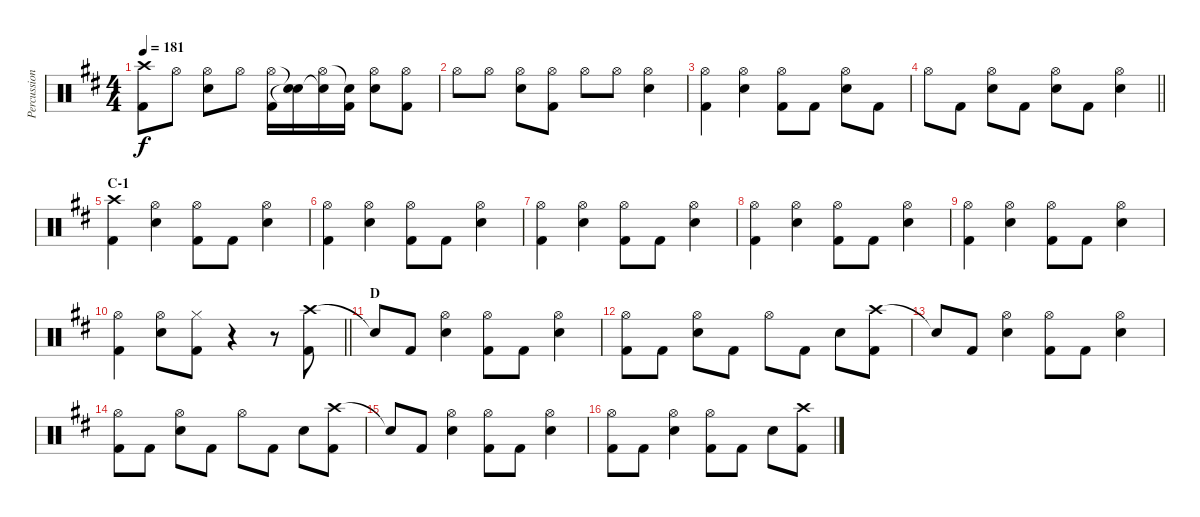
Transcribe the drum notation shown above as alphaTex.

\track ("Percussion" "Percussion") {instrument percussion}
\staff {score}
\articulation defaults
\ts (4 4)
\tempo 181
\clef neutral
\ks d
("Crash high (hit)" "Kick (hit) 2").8{dy f} "Hi-Hat (open)".8 ("Hi-Hat (open)" "Snare (hit) 2").8 "Hi-Hat (open)".8 ("Hi-Hat (open)" "Kick (hit) 2").16 ("Snare (hit)"{t} "Snare (hit)"{t}).16 ("Hi-Hat (open)" "Snare (hit)"{t}).16 ("Snare (hit)"{t} "Kick (hit) 2").16 ("Hi-Hat (open)" "Snare (hit) 2").8 ("Hi-Hat (open)" "Kick (hit) 2").8 |
"Hi-Hat (open)".8 "Hi-Hat (open)".8 ("Hi-Hat (open)" "Snare (hit) 2").8 ("Hi-Hat (open)" "Kick (hit) 2").8 "Hi-Hat (open)".8 "Hi-Hat (open)".8 ("Hi-Hat (open)" "Snare (hit) 2").4 |
("Hi-Hat (open)" "Kick (hit) 2").4 ("Hi-Hat (open)" "Snare (hit) 2").4 ("Hi-Hat (open)" "Kick (hit) 2").8 "Kick (hit) 2".8 ("Hi-Hat (open)" "Snare (hit) 2").8 "Kick (hit) 2".8 |
\barLineRight lightlight "Hi-Hat (open)".8 "Kick (hit) 2".8
("Hi-Hat (open)" "Snare (hit) 2").8 "Kick (hit) 2".8 ("Hi-Hat (open)" "Snare (hit) 2").8 "Kick (hit) 2".8 ("Hi-Hat (open)" "Snare (hit) 2").4 |
\section ("" "C-1")
("Crash high (hit)" "Kick (hit) 2").4 ("Hi-Hat (open)" "Snare (hit) 2").4 ("Hi-Hat (open)" "Kick (hit) 2").8 "Kick (hit) 2".8 ("Hi-Hat (open)" "Snare (hit) 2").4 |
("Hi-Hat (open)" "Kick (hit) 2").4 ("Hi-Hat (open)" "Snare (hit) 2").4 ("Hi-Hat (open)" "Kick (hit) 2").8 "Kick (hit) 2".8 ("Hi-Hat (open)" "Snare (hit) 2").4 |
("Hi-Hat (open)" "Kick (hit) 2").4 ("Hi-Hat (open)" "Snare (hit) 2").4 ("Hi-Hat (open)" "Kick (hit) 2").8 "Kick (hit) 2".8 ("Hi-Hat (open)" "Snare (hit) 2").4 |
("Hi-Hat (open)" "Kick (hit) 2").4 ("Hi-Hat (open)" "Snare (hit) 2").4 ("Hi-Hat (open)" "Kick (hit) 2").8 "Kick (hit) 2".8 ("Hi-Hat (open)" "Snare (hit) 2").4 |
("Hi-Hat (open)" "Kick (hit) 2").4 ("Hi-Hat (open)" "Snare (hit) 2").4 ("Hi-Hat (open)" "Kick (hit) 2").8 "Kick (hit) 2".8 ("Hi-Hat (open)" "Snare (hit) 2").4 |
\barLineRight lightlight
("Hi-Hat (open)" "Kick (hit) 2").4 ("Hi-Hat (open)" "Snare (hit) 2").8 ("Hi-Hat (closed)" "Kick (hit) 2").8 r.4 r.8 ("Crash high (hit)" "Kick (hit) 2").8 |
\section ("" "D")
"Snare (hit)"{t}.8 "Kick (hit) 2".8 ("Hi-Hat (open)" "Snare (hit) 2").4 ("Hi-Hat (open)" "Kick (hit) 2").8 "Kick (hit) 2".8 ("Hi-Hat (open)" "Snare (hit) 2").4 |
("Hi-Hat (open)" "Kick (hit) 2").8 "Kick (hit) 2".8 ("Hi-Hat (open)" "Snare (hit) 2").8 "Kick (hit) 2".8 "Hi-Hat (open)".8 "Kick (hit) 2".8 "Snare (hit) 2".8 ("Crash high (hit)" "Kick (hit) 2").8 |
"Snare (hit)"{t}.8 "Kick (hit) 2".8 ("Hi-Hat (open)" "Snare (hit) 2").4 ("Hi-Hat (open)" "Kick (hit) 2").8 "Kick (hit) 2".8 ("Hi-Hat (open)" "Snare (hit) 2").4 |
("Hi-Hat (open)" "Kick (hit) 2").8 "Kick (hit) 2".8 ("Hi-Hat (open)" "Snare (hit) 2").8 "Kick (hit) 2".8 "Hi-Hat (open)".8 "Kick (hit) 2".8 "Snare (hit) 2".8 ("Crash high (hit)" "Kick (hit) 2").8 |
"Snare (hit)"{t}.8 "Kick (hit) 2".8 ("Hi-Hat (open)" "Snare (hit) 2").4 ("Hi-Hat (open)" "Kick (hit) 2").8 "Kick (hit) 2".8 ("Hi-Hat (open)" "Snare (hit) 2").4 |
("Hi-Hat (open)" "Kick (hit) 2").8 "Kick (hit) 2".8 ("Hi-Hat (open)" "Snare (hit) 2").4 ("Hi-Hat (open)" "Kick (hit) 2").8 "Kick (hit) 2".8 "Snare (hit) 2".8 ("Crash high (hit)" "Kick (hit) 2").8
